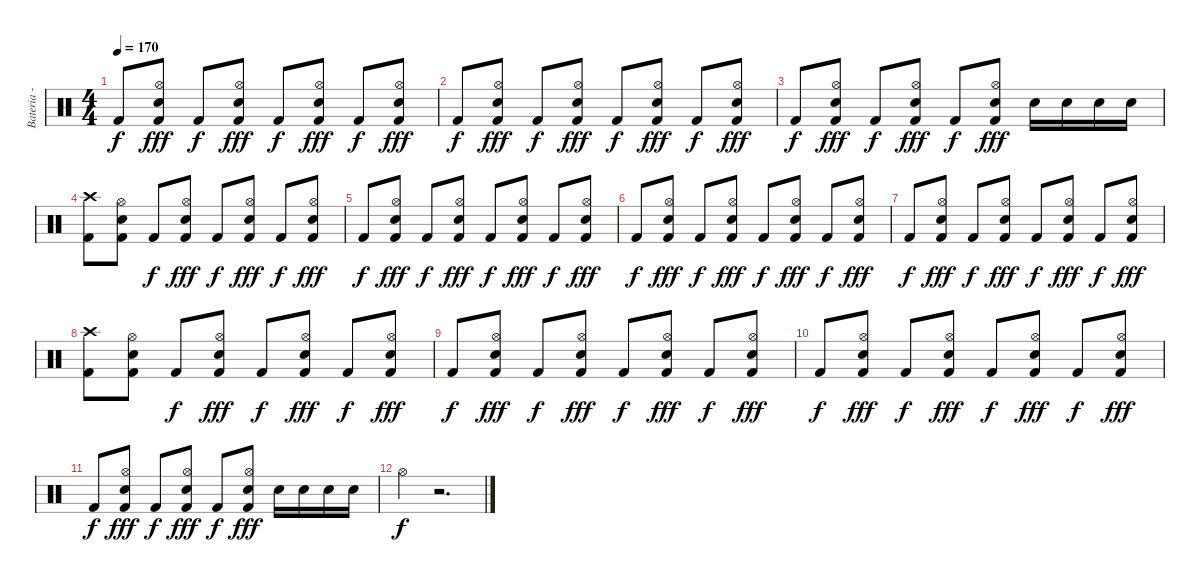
\track ("Bateria - Larzon" "Bateria - ") {instrument percussion}
\staff {score}
\articulation defaults
\ts (4 4)
\tempo 170
\clef neutral
\ks c "Kick (hit) 2".8{dy f}
("Kick (hit) 2" "Hi-Hat (open)" "Snare (hit) 2").8{dy fff} "Kick (hit) 2".8{dy f} ("Kick (hit) 2" "Hi-Hat (open)" "Snare (hit) 2").8{dy fff} "Kick (hit) 2".8{dy f} ("Kick (hit) 2" "Hi-Hat (open)" "Snare (hit) 2").8{dy fff} "Kick (hit) 2".8{dy f} ("Kick (hit) 2" "Hi-Hat (open)" "Snare (hit) 2").8{dy fff} |
"Kick (hit) 2".8{dy f} ("Kick (hit) 2" "Hi-Hat (open)" "Snare (hit) 2").8{dy fff} "Kick (hit) 2".8{dy f} ("Kick (hit) 2" "Hi-Hat (open)" "Snare (hit) 2").8{dy fff} "Kick (hit) 2".8{dy f} ("Kick (hit) 2" "Hi-Hat (open)" "Snare (hit) 2").8{dy fff} "Kick (hit) 2".8{dy f} ("Kick (hit) 2" "Hi-Hat (open)" "Snare (hit) 2").8{dy fff} |
"Kick (hit) 2".8{dy f} ("Kick (hit) 2" "Hi-Hat (open)" "Snare (hit) 2").8{dy fff} "Kick (hit) 2".8{dy f} ("Kick (hit) 2" "Hi-Hat (open)" "Snare (hit) 2").8{dy fff} "Kick (hit) 2".8{dy f} ("Kick (hit) 2" "Hi-Hat (open)" "Snare (hit) 2").8{dy fff} "Snare (hit) 2".16 "Snare (hit) 2".16 "Snare (hit) 2".16 "Snare (hit) 2".16 |
("Crash high (hit)" "Kick (hit) 2").8 ("Kick (hit) 2" "Hi-Hat (open)" "Snare (hit) 2").8 "Kick (hit) 2".8{dy f} ("Kick (hit) 2" "Hi-Hat (open)" "Snare (hit) 2").8{dy fff} "Kick (hit) 2".8{dy f} ("Kick (hit) 2" "Hi-Hat (open)" "Snare (hit) 2").8{dy fff} "Kick (hit) 2".8{dy f} ("Kick (hit) 2" "Hi-Hat (open)" "Snare (hit) 2").8{dy fff} |
"Kick (hit) 2".8{dy f} ("Kick (hit) 2" "Hi-Hat (open)" "Snare (hit) 2").8{dy fff} "Kick (hit) 2".8{dy f} ("Kick (hit) 2" "Hi-Hat (open)" "Snare (hit) 2").8{dy fff} "Kick (hit) 2".8{dy f} ("Kick (hit) 2" "Hi-Hat (open)" "Snare (hit) 2").8{dy fff} "Kick (hit) 2".8{dy f} ("Kick (hit) 2" "Hi-Hat (open)" "Snare (hit) 2").8{dy fff} |
"Kick (hit) 2".8{dy f} ("Kick (hit) 2" "Hi-Hat (open)" "Snare (hit) 2").8{dy fff} "Kick (hit) 2".8{dy f} ("Kick (hit) 2" "Hi-Hat (open)" "Snare (hit) 2").8{dy fff} "Kick (hit) 2".8{dy f} ("Kick (hit) 2" "Hi-Hat (open)" "Snare (hit) 2").8{dy fff} "Kick (hit) 2".8{dy f} ("Kick (hit) 2" "Hi-Hat (open)" "Snare (hit) 2").8{dy fff} |
"Kick (hit) 2".8{dy f} ("Kick (hit) 2" "Hi-Hat (open)" "Snare (hit) 2").8{dy fff} "Kick (hit) 2".8{dy f} ("Kick (hit) 2" "Hi-Hat (open)" "Snare (hit) 2").8{dy fff} "Kick (hit) 2".8{dy f} ("Kick (hit) 2" "Hi-Hat (open)" "Snare (hit) 2").8{dy fff} "Kick (hit) 2".8{dy f} ("Kick (hit) 2" "Hi-Hat (open)" "Snare (hit) 2").8{dy fff} |
("Crash high (hit)" "Kick (hit) 2").8 ("Kick (hit) 2" "Hi-Hat (open)" "Snare (hit) 2").8 "Kick (hit) 2".8{dy f} ("Kick (hit) 2" "Hi-Hat (open)" "Snare (hit) 2").8{dy fff} "Kick (hit) 2".8{dy f} ("Kick (hit) 2" "Hi-Hat (open)" "Snare (hit) 2").8{dy fff} "Kick (hit) 2".8{dy f} ("Kick (hit) 2" "Hi-Hat (open)" "Snare (hit) 2").8{dy fff} |
"Kick (hit) 2".8{dy f} ("Kick (hit) 2" "Hi-Hat (open)" "Snare (hit) 2").8{dy fff} "Kick (hit) 2".8{dy f} ("Kick (hit) 2" "Hi-Hat (open)" "Snare (hit) 2").8{dy fff} "Kick (hit) 2".8{dy f} ("Kick (hit) 2" "Hi-Hat (open)" "Snare (hit) 2").8{dy fff} "Kick (hit) 2".8{dy f} ("Kick (hit) 2" "Hi-Hat (open)" "Snare (hit) 2").8{dy fff} |
"Kick (hit) 2".8{dy f} ("Kick (hit) 2" "Hi-Hat (open)" "Snare (hit) 2").8{dy fff} "Kick (hit) 2".8{dy f} ("Kick (hit) 2" "Hi-Hat (open)" "Snare (hit) 2").8{dy fff} "Kick (hit) 2".8{dy f} ("Kick (hit) 2" "Hi-Hat (open)" "Snare (hit) 2").8{dy fff} "Kick (hit) 2".8{dy f} ("Kick (hit) 2" "Hi-Hat (open)" "Snare (hit) 2").8{dy fff} |
"Kick (hit) 2".8{dy f} ("Kick (hit) 2" "Hi-Hat (open)" "Snare (hit) 2").8{dy fff} "Kick (hit) 2".8{dy f} ("Kick (hit) 2" "Hi-Hat (open)" "Snare (hit) 2").8{dy fff} "Kick (hit) 2".8{dy f} ("Kick (hit) 2" "Hi-Hat (open)" "Snare (hit) 2").8{dy fff} "Snare (hit) 2".16 "Snare (hit) 2".16 "Snare (hit) 2".16 "Snare (hit) 2".16 |
"Hi-Hat (open)".4{dy f} r.2{d}
